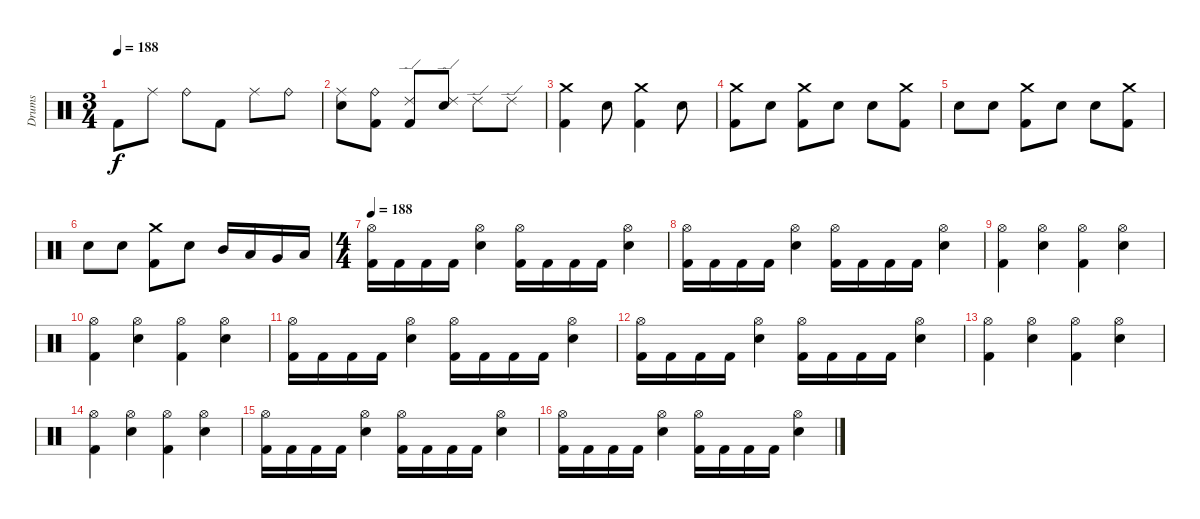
\track ("Drums" "Drums") {instrument percussion}
\staff {score}
\articulation defaults
\ts (3 4)
\tempo 188
\clef neutral
\ks c "Kick (hit) 2".8{dy f} "Ride (middle)".8 "Ride (bell)".8 "Kick (hit) 2".8 "Ride (middle)".8 "Ride (bell)".8
|
("Electric Snare (hit)" "Ride (middle)").8 ("Ride (bell)" "Kick (hit) 2").8 ("Ride (edge) 2" "Kick (hit) 2").8 ("Electric Snare (hit)" "Ride (edge) 2").8 "Ride (edge) 2".8 "Ride (edge) 2".8 |
("Crash medium (hit)" "Kick (hit) 2").4 "Electric Snare (hit)".8 ("Crash medium (hit)" "Kick (hit) 2").4 "Electric Snare (hit)".8 |
("Crash medium (hit)" "Kick (hit) 2").8 "Electric Snare (hit)".8 ("Crash medium (hit)" "Kick (hit) 2").8 "Electric Snare (hit)".8 "Electric Snare (hit)".8 ("Crash medium (hit)" "Kick (hit) 2").8 |
"Electric Snare (hit)".8 "Electric Snare (hit)".8 ("Crash medium (hit)" "Kick (hit) 2").8 "Electric Snare (hit)".8 "Electric Snare (hit)".8 ("Crash medium (hit)" "Kick (hit) 2").8 |
"Electric Snare (hit)".8 "Electric Snare (hit)".8 ("Crash medium (hit)" "Kick (hit) 2").8 "Electric Snare (hit)".8 "Mid Tom (hit)".16 "Low Tom (hit)".16 "Very Low Tom (hit)".16 "Low Floor Tom (hit)".16 |
\ts (4 4)
\tempo 188
("Hi-Hat (open)" "Kick (hit) 2").16 "Kick (hit) 2".16 "Kick (hit) 2".16 "Kick (hit) 2".16 ("Electric Snare (hit)" "Hi-Hat (open)").4 ("Hi-Hat (open)" "Kick (hit) 2").16 "Kick (hit) 2".16 "Kick (hit) 2".16 "Kick (hit) 2".16 ("Electric Snare (hit)" "Hi-Hat (open)").4 |
("Hi-Hat (open)" "Kick (hit) 2").16 "Kick (hit) 2".16 "Kick (hit) 2".16 "Kick (hit) 2".16 ("Electric Snare (hit)" "Hi-Hat (open)").4 ("Hi-Hat (open)" "Kick (hit) 2").16 "Kick (hit) 2".16 "Kick (hit) 2".16 "Kick (hit) 2".16 ("Electric Snare (hit)" "Hi-Hat (open)").4 |
("Hi-Hat (open)" "Kick (hit) 2").4 ("Electric Snare (hit)" "Hi-Hat (open)").4 ("Hi-Hat (open)" "Kick (hit) 2").4 ("Electric Snare (hit)" "Hi-Hat (open)").4 |
("Hi-Hat (open)" "Kick (hit) 2").4 ("Electric Snare (hit)" "Hi-Hat (open)").4 ("Hi-Hat (open)" "Kick (hit) 2").4 ("Electric Snare (hit)" "Hi-Hat (open)").4 |
("Hi-Hat (open)" "Kick (hit) 2").16 "Kick (hit) 2".16 "Kick (hit) 2".16 "Kick (hit) 2".16 ("Electric Snare (hit)" "Hi-Hat (open)").4 ("Hi-Hat (open)" "Kick (hit) 2").16 "Kick (hit) 2".16 "Kick (hit) 2".16 "Kick (hit) 2".16 ("Electric Snare (hit)" "Hi-Hat (open)").4 |
("Hi-Hat (open)" "Kick (hit) 2").16 "Kick (hit) 2".16 "Kick (hit) 2".16 "Kick (hit) 2".16 ("Electric Snare (hit)" "Hi-Hat (open)").4 ("Hi-Hat (open)" "Kick (hit) 2").16 "Kick (hit) 2".16 "Kick (hit) 2".16 "Kick (hit) 2".16 ("Electric Snare (hit)" "Hi-Hat (open)").4 |
("Hi-Hat (open)" "Kick (hit) 2").4 ("Electric Snare (hit)" "Hi-Hat (open)").4 ("Hi-Hat (open)" "Kick (hit) 2").4 ("Electric Snare (hit)" "Hi-Hat (open)").4 |
("Hi-Hat (open)" "Kick (hit) 2").4 ("Electric Snare (hit)" "Hi-Hat (open)").4 ("Hi-Hat (open)" "Kick (hit) 2").4 ("Electric Snare (hit)" "Hi-Hat (open)").4 |
("Hi-Hat (open)" "Kick (hit) 2").16 "Kick (hit) 2".16 "Kick (hit) 2".16 "Kick (hit) 2".16 ("Electric Snare (hit)" "Hi-Hat (open)").4 ("Hi-Hat (open)" "Kick (hit) 2").16 "Kick (hit) 2".16 "Kick (hit) 2".16 "Kick (hit) 2".16 ("Electric Snare (hit)" "Hi-Hat (open)").4 |
("Hi-Hat (open)" "Kick (hit) 2").16 "Kick (hit) 2".16 "Kick (hit) 2".16 "Kick (hit) 2".16 ("Electric Snare (hit)" "Hi-Hat (open)").4 ("Hi-Hat (open)" "Kick (hit) 2").16 "Kick (hit) 2".16 "Kick (hit) 2".16 "Kick (hit) 2".16 ("Electric Snare (hit)" "Hi-Hat (open)").4
